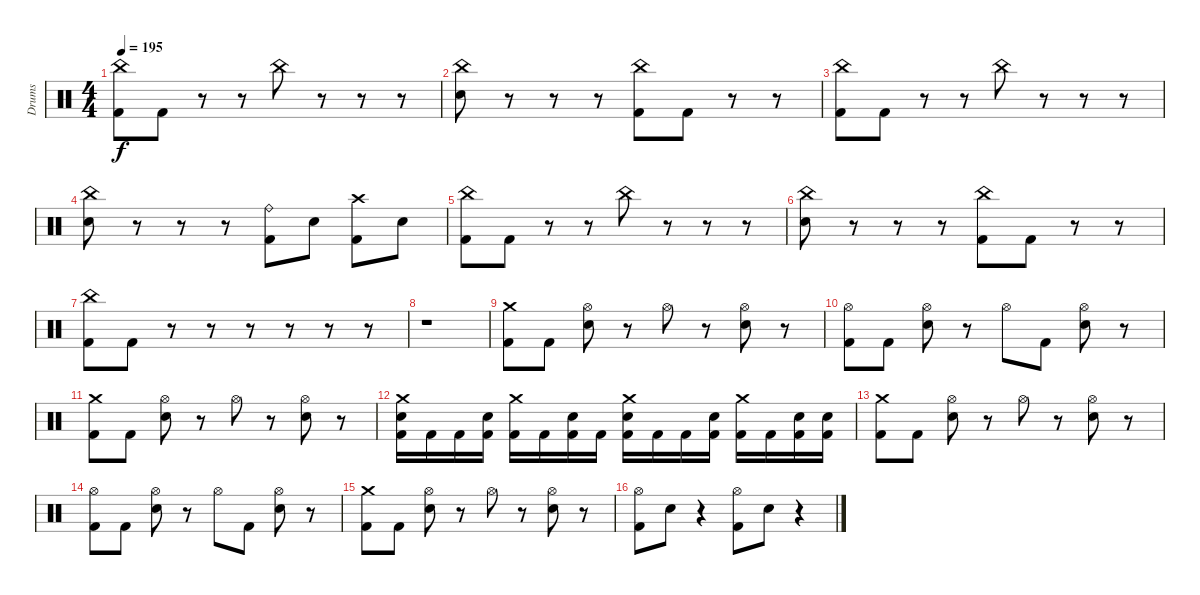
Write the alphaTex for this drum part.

\track ("Drums" "Drums") {instrument percussion}
\staff {score}
\articulation defaults
\ts (4 4)
\tempo 195
\clef neutral
\ks c
("China (hit)" "Kick (hit) 2").8{dy f} "Kick (hit) 2".8 r.8 r.8 "China (hit)".8 r.8 r.8 r.8 |
("China (hit)" "Electric Snare (hit)").8 r.8 r.8 r.8 ("China (hit)" "Kick (hit) 2").8 "Kick (hit) 2".8 r.8 r.8 |
("China (hit)" "Kick (hit) 2").8 "Kick (hit) 2".8 r.8 r.8 "China (hit)".8 r.8 r.8 r.8 |
("China (hit)" "Electric Snare (hit)").8 r.8 r.8 r.8 ("Ride (bell)" "Kick (hit) 2").8 "Electric Snare (hit)".8 ("Crash high (hit)" "Kick (hit) 2").8 "Electric Snare (hit)".8 |
("China (hit)" "Kick (hit) 2").8 "Kick (hit) 2".8 r.8 r.8 "China (hit)".8 r.8 r.8 r.8 |
("China (hit)" "Electric Snare (hit)").8 r.8 r.8 r.8 ("China (hit)" "Kick (hit) 2").8 "Kick (hit) 2".8 r.8 r.8 |
("China (hit)" "Kick (hit) 2").8 "Kick (hit) 2".8 r.8 r.8 r.8 r.8 r.8 r.8 |
r.1 |
("Crash medium (hit)" "Kick (hit) 2").8 "Kick (hit) 2".8 ("Hi-Hat (open)" "Electric Snare (hit)").8 r.8 "Hi-Hat (open)".8 r.8 ("Hi-Hat (open)" "Electric Snare (hit)").8 r.8 |
("Hi-Hat (open)" "Kick (hit) 2").8 "Kick (hit) 2".8 ("Hi-Hat (open)" "Electric Snare (hit)").8 r.8 "Hi-Hat (open)".8 "Kick (hit) 2".8 ("Hi-Hat (open)" "Electric Snare (hit)").8 r.8 |
("Crash medium (hit)" "Kick (hit) 2").8 "Kick (hit) 2".8 ("Hi-Hat (open)" "Electric Snare (hit)").8 r.8 "Hi-Hat (open)".8 r.8 ("Hi-Hat (open)" "Electric Snare (hit)").8 r.8 |
("Crash medium (hit)" "Electric Snare (hit)" "Kick (hit) 2").16 "Kick (hit) 2".16 "Kick (hit) 2".16 ("Electric Snare (hit)" "Kick (hit) 2").16 ("Crash medium (hit)" "Kick (hit) 2").16 "Kick (hit) 2".16 ("Electric Snare (hit)" "Kick (hit) 2").16 "Kick (hit) 2".16 ("Crash medium (hit)" "Electric Snare (hit)" "Kick (hit) 2").16 "Kick (hit) 2".16 "Kick (hit) 2".16 ("Electric Snare (hit)" "Kick (hit) 2").16 ("Crash medium (hit)" "Kick (hit) 2").16 "Kick (hit) 2".16 ("Electric Snare (hit)" "Kick (hit) 2").16 ("Electric Snare (hit)" "Kick (hit) 2").16 |
("Crash medium (hit)" "Kick (hit) 2").8 "Kick (hit) 2".8 ("Hi-Hat (open)" "Electric Snare (hit)").8 r.8 "Hi-Hat (open)".8 r.8 ("Hi-Hat (open)" "Electric Snare (hit)").8 r.8 |
("Hi-Hat (open)" "Kick (hit) 2").8 "Kick (hit) 2".8 ("Hi-Hat (open)" "Electric Snare (hit)").8 r.8 "Hi-Hat (open)".8 "Kick (hit) 2".8 ("Hi-Hat (open)" "Electric Snare (hit)").8 r.8 |
("Crash medium (hit)" "Kick (hit) 2").8 "Kick (hit) 2".8 ("Hi-Hat (open)" "Electric Snare (hit)").8 r.8 "Hi-Hat (open)".8 r.8 ("Hi-Hat (open)" "Electric Snare (hit)").8 r.8 |
("Hi-Hat (open)" "Kick (hit) 2").8 "Electric Snare (hit)".8 r.4 ("Hi-Hat (open)" "Kick (hit) 2").8 "Electric Snare (hit)".8 r.4
